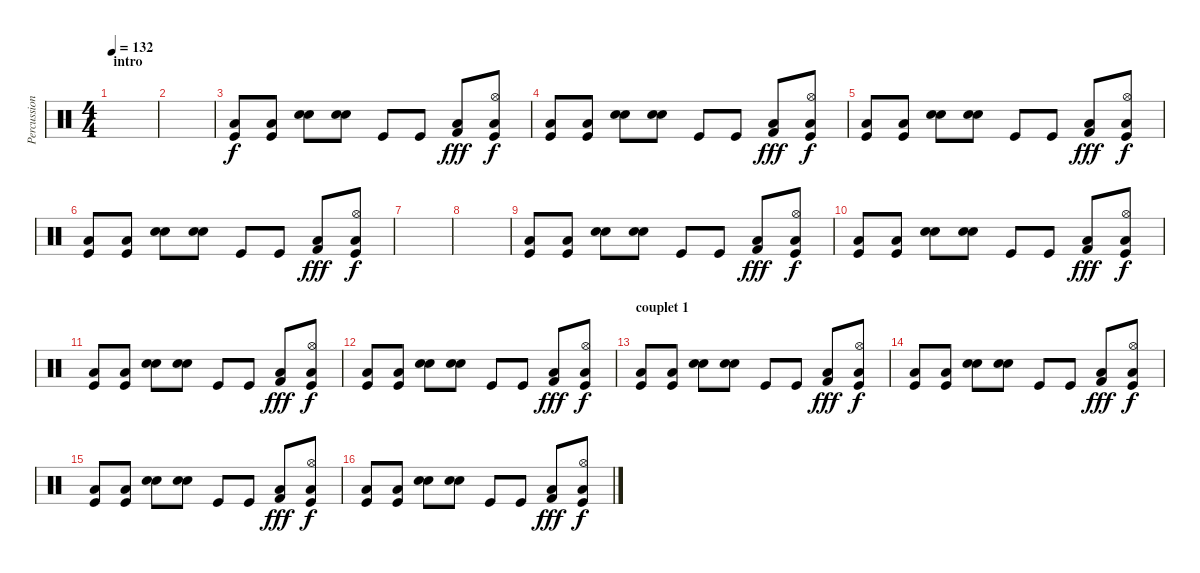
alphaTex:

\track ("Percussions" "Percussion") {instrument percussion}
\staff {score}
\articulation defaults
\ts (4 4)
\section ("" "intro")
\tempo 132
\clef neutral
\ks c
|
|
("Low Floor Tom (hit)" "Kick (hit)").8 ("Low Floor Tom (hit)" "Kick (hit)").8 ("Electric Snare (hit)" "Snare (hit) 2").8{bu 480} ("Electric Snare (hit)" "Snare (hit) 2").8{bu 480} "Kick (hit)".8 "Kick (hit)".8 ("Kick (hit) 2" "Low Floor Tom (hit)").8{dy fff} ("Hi-Hat (open)" "Low Tom (hit)" "Kick (hit)").8{dy f} |
("Low Floor Tom (hit)" "Kick (hit)").8 ("Low Floor Tom (hit)" "Kick (hit)").8 ("Electric Snare (hit)" "Snare (hit) 2").8{bu 480} ("Electric Snare (hit)" "Snare (hit) 2").8{bu 480} "Kick (hit)".8 "Kick (hit)".8 ("Kick (hit) 2" "Low Floor Tom (hit)").8{dy fff} ("Hi-Hat (open)" "Low Tom (hit)" "Kick (hit)").8{dy f} |
("Low Floor Tom (hit)" "Kick (hit)").8 ("Low Floor Tom (hit)" "Kick (hit)").8 ("Electric Snare (hit)" "Snare (hit) 2").8{bu 480} ("Electric Snare (hit)" "Snare (hit) 2").8{bu 480} "Kick (hit)".8 "Kick (hit)".8 ("Kick (hit) 2" "Low Floor Tom (hit)").8{dy fff} ("Hi-Hat (open)" "Low Tom (hit)" "Kick (hit)").8{dy f} |
("Low Floor Tom (hit)" "Kick (hit)").8 ("Low Floor Tom (hit)" "Kick (hit)").8 ("Electric Snare (hit)" "Snare (hit) 2").8{bu 480} ("Electric Snare (hit)" "Snare (hit) 2").8{bu 480} "Kick (hit)".8 "Kick (hit)".8 ("Kick (hit) 2" "Low Floor Tom (hit)").8{dy fff} ("Hi-Hat (open)" "Low Tom (hit)" "Kick (hit)").8{dy f} |
|
|
("Low Floor Tom (hit)" "Kick (hit)").8 ("Low Floor Tom (hit)" "Kick (hit)").8 ("Electric Snare (hit)" "Snare (hit) 2").8{bu 480} ("Electric Snare (hit)" "Snare (hit) 2").8{bu 480} "Kick (hit)".8 "Kick (hit)".8 ("Kick (hit) 2" "Low Floor Tom (hit)").8{dy fff} ("Hi-Hat (open)" "Low Tom (hit)" "Kick (hit)").8{dy f} |
("Low Floor Tom (hit)" "Kick (hit)").8 ("Low Floor Tom (hit)" "Kick (hit)").8 ("Electric Snare (hit)" "Snare (hit) 2").8{bu 480} ("Electric Snare (hit)" "Snare (hit) 2").8{bu 480} "Kick (hit)".8 "Kick (hit)".8 ("Kick (hit) 2" "Low Floor Tom (hit)").8{dy fff} ("Hi-Hat (open)" "Low Tom (hit)" "Kick (hit)").8{dy f} |
("Low Floor Tom (hit)" "Kick (hit)").8 ("Low Floor Tom (hit)" "Kick (hit)").8 ("Electric Snare (hit)" "Snare (hit) 2").8{bu 480} ("Electric Snare (hit)" "Snare (hit) 2").8{bu 480} "Kick (hit)".8 "Kick (hit)".8 ("Kick (hit) 2" "Low Floor Tom (hit)").8{dy fff} ("Hi-Hat (open)" "Low Tom (hit)" "Kick (hit)").8{dy f} |
("Low Floor Tom (hit)" "Kick (hit)").8 ("Low Floor Tom (hit)" "Kick (hit)").8 ("Electric Snare (hit)" "Snare (hit) 2").8{bu 480} ("Electric Snare (hit)" "Snare (hit) 2").8{bu 480} "Kick (hit)".8 "Kick (hit)".8 ("Kick (hit) 2" "Low Floor Tom (hit)").8{dy fff} ("Hi-Hat (open)" "Low Tom (hit)" "Kick (hit)").8{dy f} |
\section ("" "couplet 1")
("Low Floor Tom (hit)" "Kick (hit)").8 ("Low Floor Tom (hit)" "Kick (hit)").8 ("Electric Snare (hit)" "Snare (hit) 2").8{bu 480} ("Electric Snare (hit)" "Snare (hit) 2").8{bu 480} "Kick (hit)".8 "Kick (hit)".8 ("Kick (hit) 2" "Low Floor Tom (hit)").8{dy fff} ("Hi-Hat (open)" "Low Tom (hit)" "Kick (hit)").8{dy f} |
("Low Floor Tom (hit)" "Kick (hit)").8 ("Low Floor Tom (hit)" "Kick (hit)").8 ("Electric Snare (hit)" "Snare (hit) 2").8{bu 480} ("Electric Snare (hit)" "Snare (hit) 2").8{bu 480} "Kick (hit)".8 "Kick (hit)".8 ("Kick (hit) 2" "Low Floor Tom (hit)").8{dy fff} ("Hi-Hat (open)" "Low Tom (hit)" "Kick (hit)").8{dy f} |
("Low Floor Tom (hit)" "Kick (hit)").8 ("Low Floor Tom (hit)" "Kick (hit)").8 ("Electric Snare (hit)" "Snare (hit) 2").8{bu 480} ("Electric Snare (hit)" "Snare (hit) 2").8{bu 480} "Kick (hit)".8 "Kick (hit)".8 ("Kick (hit) 2" "Low Floor Tom (hit)").8{dy fff} ("Hi-Hat (open)" "Low Tom (hit)" "Kick (hit)").8{dy f} |
("Low Floor Tom (hit)" "Kick (hit)").8 ("Low Floor Tom (hit)" "Kick (hit)").8 ("Electric Snare (hit)" "Snare (hit) 2").8{bu 480} ("Electric Snare (hit)" "Snare (hit) 2").8{bu 480} "Kick (hit)".8 "Kick (hit)".8 ("Kick (hit) 2" "Low Floor Tom (hit)").8{dy fff} ("Hi-Hat (open)" "Low Tom (hit)" "Kick (hit)").8{dy f}
